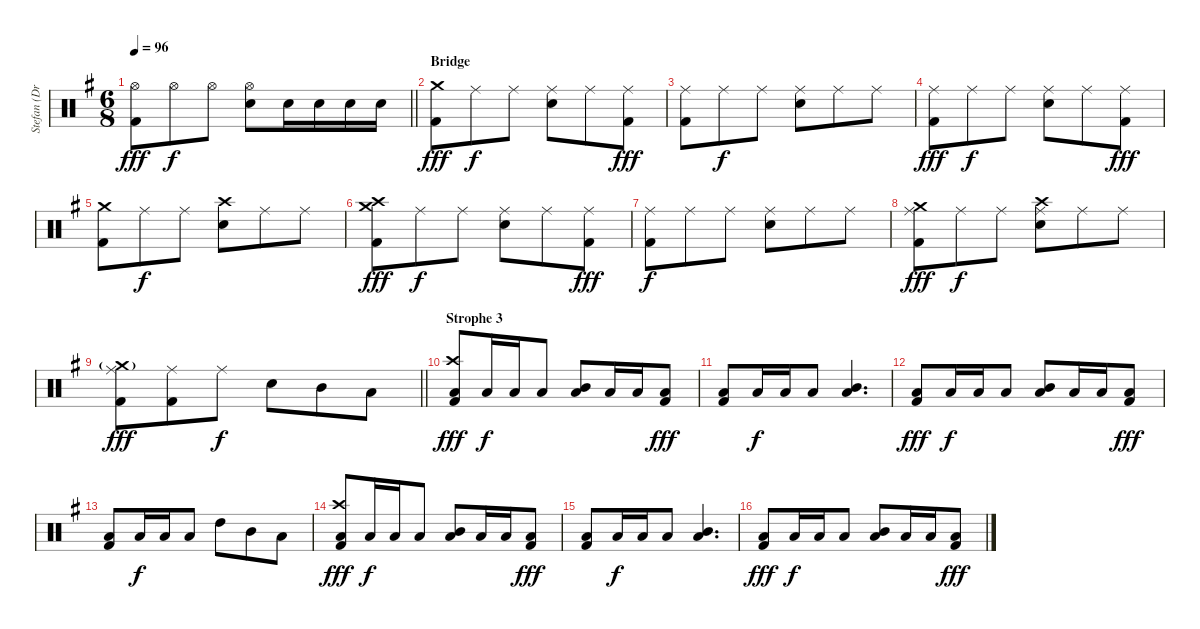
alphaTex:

\track ("Stefan (Drums)" "Stefan (Dr") {instrument percussion}
\staff {score}
\articulation defaults
\ts (6 8)
\tempo 96
\clef neutral
\barLineRight lightlight
\ks g
("Hi-Hat (open)" "Kick (hit) 2").8{dy fff} "Hi-Hat (open)".8{dy f} "Hi-Hat (open)".8 ("Hi-Hat (open)" "Snare (hit) 2").8 "Snare (hit) 2".16 "Snare (hit) 2".16 "Snare (hit) 2".16 "Snare (hit) 2".16 |
\section ("" "Bridge")
("Crash medium (hit)" "Kick (hit) 2").8{dy fff} "Ride (middle)".8{dy f} "Ride (middle)".8 ("Ride (middle)" "Snare (hit) 2").8 "Ride (middle)".8 ("Ride (middle)" "Kick (hit) 2").8{dy fff} |
("Ride (middle)" "Kick (hit) 2").8 "Ride (middle)".8{dy f} "Ride (middle)".8 ("Ride (middle)" "Snare (hit) 2").8 "Ride (middle)".8 "Ride (middle)".8 |
("Ride (middle)" "Kick (hit) 2").8{dy fff} "Ride (middle)".8{dy f} "Ride (middle)".8 ("Ride (middle)" "Snare (hit) 2").8 "Ride (middle)".8 ("Ride (middle)" "Kick (hit) 2").8{dy fff} |
("Crash medium (hit)" "Kick (hit) 2").8 "Ride (middle)".8{dy f} "Ride (middle)".8 ("Crash high (hit)" "Snare (hit) 2").8 "Ride (middle)".8 "Ride (middle)".8 |
("Crash medium (hit)" "Crash high (hit)" "Kick (hit) 2").8{dy fff} "Ride (middle)".8{dy f} "Ride (middle)".8 ("Ride (middle)" "Snare (hit) 2").8 "Ride (middle)".8 ("Ride (middle)" "Kick (hit) 2").8{dy fff} |
("Ride (middle)" "Kick (hit) 2").8{dy f} "Ride (middle)".8 "Ride (middle)".8 ("Ride (middle)" "Snare (hit) 2").8 "Ride (middle)".8 "Ride (middle)".8 |
("Ride (middle)" "Crash medium (hit)" "Kick (hit) 2").8{dy fff} "Ride (middle)".8{dy f} "Ride (middle)".8 ("Ride (middle)" "Crash high (hit)" "Snare (hit) 2").8 "Ride (middle)".8 "Ride (middle)".8 |
\barLineRight lightlight
("Ride (middle)" "Crash medium (hit)"{g} "Kick (hit) 2").8{dy fff} ("Ride (middle)" "Kick (hit) 2").8 "Ride (middle)".8{dy f} "Snare (hit) 2".8 "Mid Tom (hit)".8 "Low Tom (hit)".8 |
\section ("" "Strophe 3")
("Crash high (hit)" "Low Tom (hit)" "Kick (hit) 2").8{dy fff} "Low Tom (hit)".16{dy f} "Low Tom (hit)".16 "Low Tom (hit)".8 ("Mid Tom (hit)" "Low Tom (hit)").8 "Low Tom (hit)".16 "Low Tom (hit)".16 ("Low Tom (hit)" "Kick (hit) 2").8{dy fff} |
("Low Tom (hit)" "Kick (hit) 2").8 "Low Tom (hit)".16{dy f} "Low Tom (hit)".16 "Low Tom (hit)".8 ("Mid Tom (hit)" "Low Tom (hit)").4{d} |
("Low Tom (hit)" "Kick (hit) 2").8{dy fff} "Low Tom (hit)".16{dy f} "Low Tom (hit)".16 "Low Tom (hit)".8 ("Mid Tom (hit)" "Low Tom (hit)").8 "Low Tom (hit)".16 "Low Tom (hit)".16 ("Low Tom (hit)" "Kick (hit) 2").8{dy fff} |
("Low Tom (hit)" "Kick (hit) 2").8 "Low Tom (hit)".16{dy f} "Low Tom (hit)".16 "Low Tom (hit)".8 "High Tom (hit)".8 "Mid Tom (hit)".8 "Low Tom (hit)".8 |
("Crash high (hit)" "Low Tom (hit)" "Kick (hit) 2").8{dy fff} "Low Tom (hit)".16{dy f} "Low Tom (hit)".16 "Low Tom (hit)".8 ("Mid Tom (hit)" "Low Tom (hit)").8 "Low Tom (hit)".16 "Low Tom (hit)".16 ("Low Tom (hit)" "Kick (hit) 2").8{dy fff} |
("Low Tom (hit)" "Kick (hit) 2").8 "Low Tom (hit)".16{dy f} "Low Tom (hit)".16 "Low Tom (hit)".8 ("Mid Tom (hit)" "Low Tom (hit)").4{d} |
("Low Tom (hit)" "Kick (hit) 2").8{dy fff} "Low Tom (hit)".16{dy f} "Low Tom (hit)".16 "Low Tom (hit)".8 ("Mid Tom (hit)" "Low Tom (hit)").8 "Low Tom (hit)".16 "Low Tom (hit)".16 ("Low Tom (hit)" "Kick (hit) 2").8{dy fff}
